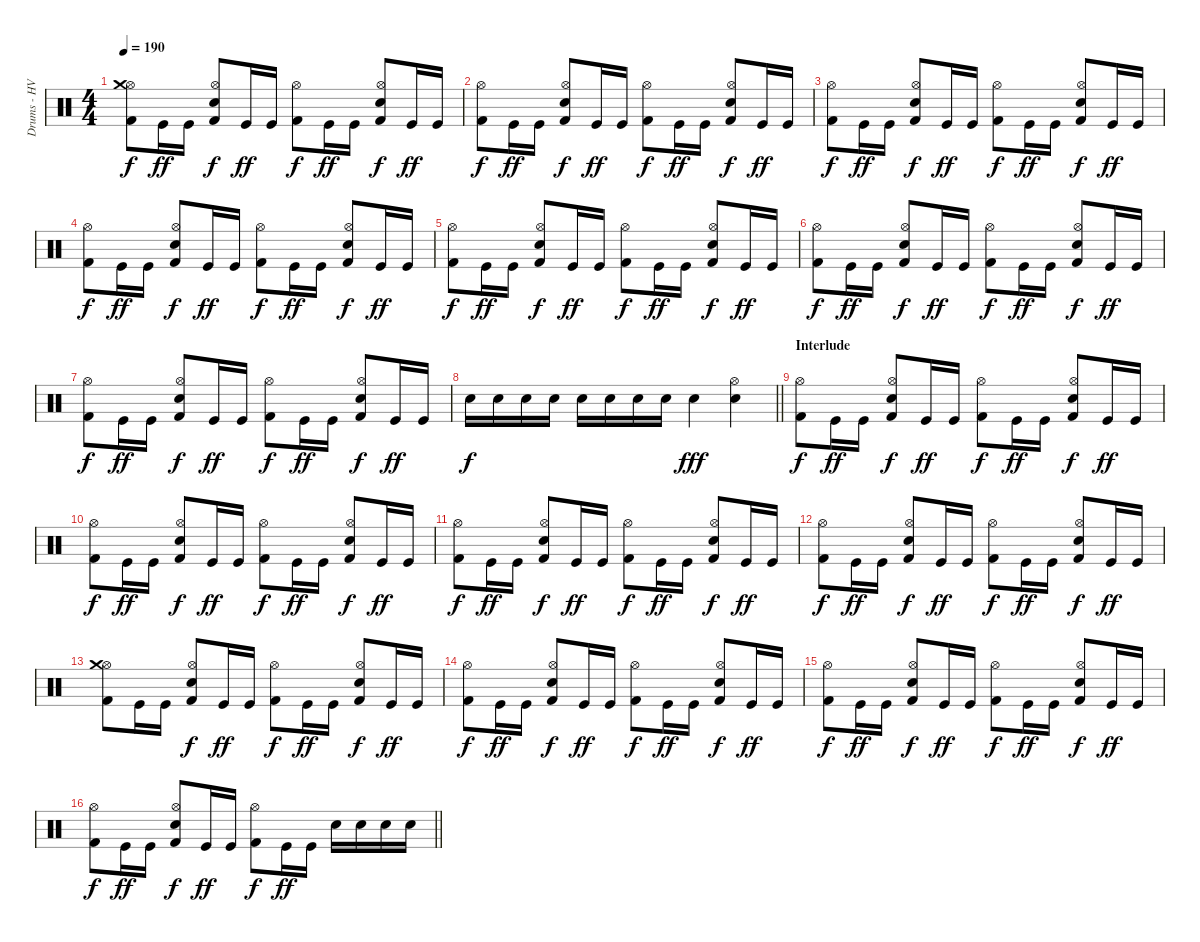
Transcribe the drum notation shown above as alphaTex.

\track ("Drums - HV NikiTon" "Drums - HV") {instrument percussion}
\staff {score}
\articulation defaults
\ts (4 4)
\tempo 190
\clef neutral
\ks c
("Kick (hit) 2" "Hi-Hat (open)" "Crash medium (hit)").8{dy f} "Kick (hit)".16{dy ff} "Kick (hit)".16 ("Electric Snare (hit)" "Kick (hit) 2" "Hi-Hat (open)").8{dy f} "Kick (hit)".16{dy ff} "Kick (hit)".16 ("Kick (hit) 2" "Hi-Hat (open)").8{dy f} "Kick (hit)".16{dy ff} "Kick (hit)".16 ("Electric Snare (hit)" "Kick (hit) 2" "Hi-Hat (open)").8{dy f} "Kick (hit)".16{dy ff} "Kick (hit)".16 |
("Kick (hit) 2" "Hi-Hat (open)").8{dy f} "Kick (hit)".16{dy ff} "Kick (hit)".16 ("Electric Snare (hit)" "Kick (hit) 2" "Hi-Hat (open)").8{dy f} "Kick (hit)".16{dy ff} "Kick (hit)".16 ("Kick (hit) 2" "Hi-Hat (open)").8{dy f} "Kick (hit)".16{dy ff} "Kick (hit)".16 ("Electric Snare (hit)" "Kick (hit) 2" "Hi-Hat (open)").8{dy f} "Kick (hit)".16{dy ff} "Kick (hit)".16 |
("Kick (hit) 2" "Hi-Hat (open)").8{dy f} "Kick (hit)".16{dy ff} "Kick (hit)".16 ("Electric Snare (hit)" "Kick (hit) 2" "Hi-Hat (open)").8{dy f} "Kick (hit)".16{dy ff} "Kick (hit)".16 ("Kick (hit) 2" "Hi-Hat (open)").8{dy f} "Kick (hit)".16{dy ff} "Kick (hit)".16 ("Electric Snare (hit)" "Kick (hit) 2" "Hi-Hat (open)").8{dy f} "Kick (hit)".16{dy ff} "Kick (hit)".16 |
("Kick (hit) 2" "Hi-Hat (open)").8{dy f} "Kick (hit)".16{dy ff} "Kick (hit)".16 ("Electric Snare (hit)" "Kick (hit) 2" "Hi-Hat (open)").8{dy f} "Kick (hit)".16{dy ff} "Kick (hit)".16 ("Kick (hit) 2" "Hi-Hat (open)").8{dy f} "Kick (hit)".16{dy ff} "Kick (hit)".16 ("Electric Snare (hit)" "Kick (hit) 2" "Hi-Hat (open)").8{dy f} "Kick (hit)".16{dy ff} "Kick (hit)".16 |
("Kick (hit) 2" "Hi-Hat (open)").8{dy f} "Kick (hit)".16{dy ff} "Kick (hit)".16 ("Electric Snare (hit)" "Kick (hit) 2" "Hi-Hat (open)").8{dy f} "Kick (hit)".16{dy ff} "Kick (hit)".16 ("Kick (hit) 2" "Hi-Hat (open)").8{dy f} "Kick (hit)".16{dy ff} "Kick (hit)".16 ("Electric Snare (hit)" "Kick (hit) 2" "Hi-Hat (open)").8{dy f} "Kick (hit)".16{dy ff} "Kick (hit)".16 |
("Kick (hit) 2" "Hi-Hat (open)").8{dy f} "Kick (hit)".16{dy ff} "Kick (hit)".16 ("Electric Snare (hit)" "Kick (hit) 2" "Hi-Hat (open)").8{dy f} "Kick (hit)".16{dy ff} "Kick (hit)".16 ("Kick (hit) 2" "Hi-Hat (open)").8{dy f} "Kick (hit)".16{dy ff} "Kick (hit)".16 ("Electric Snare (hit)" "Kick (hit) 2" "Hi-Hat (open)").8{dy f} "Kick (hit)".16{dy ff} "Kick (hit)".16 |
("Kick (hit) 2" "Hi-Hat (open)").8{dy f} "Kick (hit)".16{dy ff} "Kick (hit)".16 ("Electric Snare (hit)" "Kick (hit) 2" "Hi-Hat (open)").8{dy f} "Kick (hit)".16{dy ff} "Kick (hit)".16 ("Kick (hit) 2" "Hi-Hat (open)").8{dy f} "Kick (hit)".16{dy ff} "Kick (hit)".16 ("Electric Snare (hit)" "Kick (hit) 2" "Hi-Hat (open)").8{dy f} "Kick (hit)".16{dy ff} "Kick (hit)".16 |
\barLineRight lightlight "Electric Snare (hit)".16{dy f} "Electric Snare (hit)".16 "Electric Snare (hit)".16 "Electric Snare (hit)".16 "Electric Snare (hit)".16 "Electric Snare (hit)".16 "Electric Snare (hit)".16 "Electric Snare (hit)".16 "Electric Snare (hit)".4{dy fff}
("Hi-Hat (open)" "Snare (hit) 2").4 |
\section ("" "Interlude")
("Kick (hit) 2" "Hi-Hat (open)").8{dy f} "Kick (hit)".16{dy ff} "Kick (hit)".16 ("Electric Snare (hit)" "Kick (hit) 2" "Hi-Hat (open)").8{dy f} "Kick (hit)".16{dy ff} "Kick (hit)".16 ("Kick (hit) 2" "Hi-Hat (open)").8{dy f} "Kick (hit)".16{dy ff} "Kick (hit)".16 ("Electric Snare (hit)" "Kick (hit) 2" "Hi-Hat (open)").8{dy f} "Kick (hit)".16{dy ff} "Kick (hit)".16 |
("Kick (hit) 2" "Hi-Hat (open)").8{dy f} "Kick (hit)".16{dy ff} "Kick (hit)".16 ("Electric Snare (hit)" "Kick (hit) 2" "Hi-Hat (open)").8{dy f} "Kick (hit)".16{dy ff} "Kick (hit)".16 ("Kick (hit) 2" "Hi-Hat (open)").8{dy f} "Kick (hit)".16{dy ff} "Kick (hit)".16 ("Electric Snare (hit)" "Kick (hit) 2" "Hi-Hat (open)").8{dy f} "Kick (hit)".16{dy ff} "Kick (hit)".16 |
("Kick (hit) 2" "Hi-Hat (open)").8{dy f} "Kick (hit)".16{dy ff} "Kick (hit)".16 ("Electric Snare (hit)" "Kick (hit) 2" "Hi-Hat (open)").8{dy f} "Kick (hit)".16{dy ff} "Kick (hit)".16 ("Kick (hit) 2" "Hi-Hat (open)").8{dy f} "Kick (hit)".16{dy ff} "Kick (hit)".16 ("Electric Snare (hit)" "Kick (hit) 2" "Hi-Hat (open)").8{dy f} "Kick (hit)".16{dy ff} "Kick (hit)".16 |
("Kick (hit) 2" "Hi-Hat (open)").8{dy f} "Kick (hit)".16{dy ff} "Kick (hit)".16 ("Electric Snare (hit)" "Kick (hit) 2" "Hi-Hat (open)").8{dy f} "Kick (hit)".16{dy ff} "Kick (hit)".16 ("Kick (hit) 2" "Hi-Hat (open)").8{dy f} "Kick (hit)".16{dy ff} "Kick (hit)".16 ("Electric Snare (hit)" "Kick (hit) 2" "Hi-Hat (open)").8{dy f} "Kick (hit)".16{dy ff} "Kick (hit)".16 |
("Kick (hit) 2" "Hi-Hat (open)" "Crash medium (hit)").8 "Kick (hit)".16 "Kick (hit)".16 ("Electric Snare (hit)" "Kick (hit) 2" "Hi-Hat (open)").8{dy f} "Kick (hit)".16{dy ff} "Kick (hit)".16 ("Kick (hit) 2" "Hi-Hat (open)").8{dy f} "Kick (hit)".16{dy ff} "Kick (hit)".16 ("Electric Snare (hit)" "Kick (hit) 2" "Hi-Hat (open)").8{dy f} "Kick (hit)".16{dy ff} "Kick (hit)".16 |
("Kick (hit) 2" "Hi-Hat (open)").8{dy f} "Kick (hit)".16{dy ff} "Kick (hit)".16 ("Electric Snare (hit)" "Kick (hit) 2" "Hi-Hat (open)").8{dy f} "Kick (hit)".16{dy ff} "Kick (hit)".16 ("Kick (hit) 2" "Hi-Hat (open)").8{dy f} "Kick (hit)".16{dy ff} "Kick (hit)".16 ("Electric Snare (hit)" "Kick (hit) 2" "Hi-Hat (open)").8{dy f} "Kick (hit)".16{dy ff} "Kick (hit)".16 |
("Kick (hit) 2" "Hi-Hat (open)").8{dy f} "Kick (hit)".16{dy ff} "Kick (hit)".16 ("Electric Snare (hit)" "Kick (hit) 2" "Hi-Hat (open)").8{dy f} "Kick (hit)".16{dy ff} "Kick (hit)".16 ("Kick (hit) 2" "Hi-Hat (open)").8{dy f} "Kick (hit)".16{dy ff} "Kick (hit)".16 ("Electric Snare (hit)" "Kick (hit) 2" "Hi-Hat (open)").8{dy f} "Kick (hit)".16{dy ff} "Kick (hit)".16 |
\barLineRight lightlight
("Kick (hit) 2" "Hi-Hat (open)").8{dy f} "Kick (hit)".16{dy ff} "Kick (hit)".16 ("Electric Snare (hit)" "Kick (hit) 2" "Hi-Hat (open)").8{dy f} "Kick (hit)".16{dy ff} "Kick (hit)".16 ("Kick (hit) 2" "Hi-Hat (open)").8{dy f} "Kick (hit)".16{dy ff} "Kick (hit)".16 "Electric Snare (hit)".16 "Electric Snare (hit)".16 "Electric Snare (hit)".16 "Electric Snare (hit)".16
